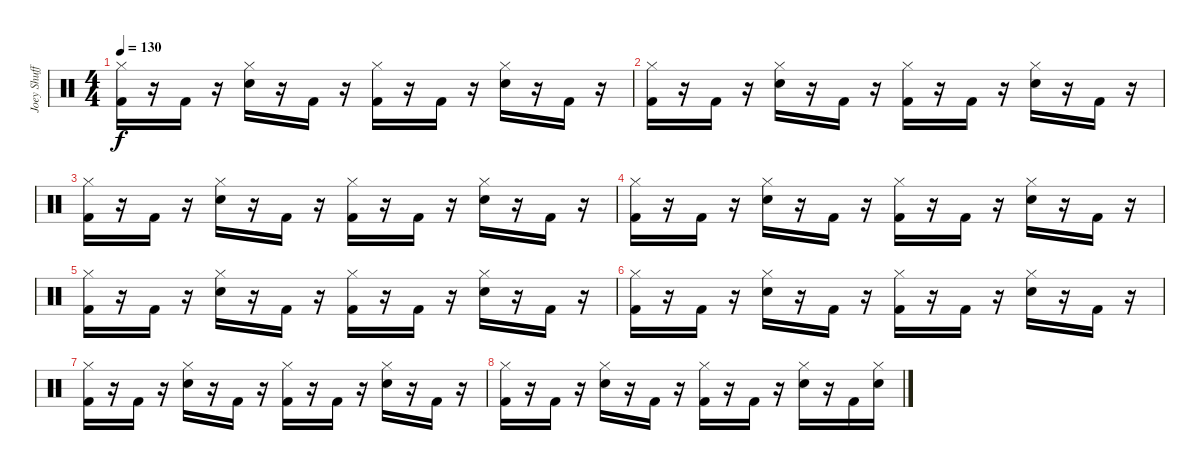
\track ("Joey Shuffield" "Joey Shuff") {instrument percussion}
\staff {score}
\articulation defaults
\ts (4 4)
\tempo 130
\clef neutral
\ks c
("Kick (hit) 2" "Hi-Hat (closed)").16{dy f} r.16 "Kick (hit) 2".16 r.16 ("Snare (hit) 2" "Hi-Hat (closed)").16 r.16 "Kick (hit) 2".16 r.16 ("Kick (hit) 2" "Hi-Hat (closed)").16 r.16 "Kick (hit) 2".16 r.16 ("Snare (hit) 2" "Hi-Hat (closed)").16 r.16 "Kick (hit) 2".16 r.16 |
("Kick (hit) 2" "Hi-Hat (closed)").16 r.16 "Kick (hit) 2".16 r.16 ("Snare (hit) 2" "Hi-Hat (closed)").16 r.16 "Kick (hit) 2".16 r.16 ("Kick (hit) 2" "Hi-Hat (closed)").16 r.16 "Kick (hit) 2".16 r.16 ("Snare (hit) 2" "Hi-Hat (closed)").16 r.16 "Kick (hit) 2".16 r.16 |
("Kick (hit) 2" "Hi-Hat (closed)").16 r.16 "Kick (hit) 2".16 r.16 ("Snare (hit) 2" "Hi-Hat (closed)").16 r.16 "Kick (hit) 2".16 r.16 ("Kick (hit) 2" "Hi-Hat (closed)").16 r.16 "Kick (hit) 2".16 r.16 ("Snare (hit) 2" "Hi-Hat (closed)").16 r.16 "Kick (hit) 2".16 r.16 |
("Kick (hit) 2" "Hi-Hat (closed)").16 r.16 "Kick (hit) 2".16 r.16 ("Snare (hit) 2" "Hi-Hat (closed)").16 r.16 "Kick (hit) 2".16 r.16 ("Kick (hit) 2" "Hi-Hat (closed)").16 r.16 "Kick (hit) 2".16 r.16 ("Snare (hit) 2" "Hi-Hat (closed)").16 r.16 "Kick (hit) 2".16 r.16 |
("Kick (hit) 2" "Hi-Hat (closed)").16 r.16 "Kick (hit) 2".16 r.16 ("Snare (hit) 2" "Hi-Hat (closed)").16 r.16 "Kick (hit) 2".16 r.16 ("Kick (hit) 2" "Hi-Hat (closed)").16 r.16 "Kick (hit) 2".16 r.16 ("Snare (hit) 2" "Hi-Hat (closed)").16 r.16 "Kick (hit) 2".16 r.16 |
("Kick (hit) 2" "Hi-Hat (closed)").16 r.16 "Kick (hit) 2".16 r.16 ("Snare (hit) 2" "Hi-Hat (closed)").16 r.16 "Kick (hit) 2".16 r.16 ("Kick (hit) 2" "Hi-Hat (closed)").16 r.16 "Kick (hit) 2".16 r.16 ("Snare (hit) 2" "Hi-Hat (closed)").16 r.16 "Kick (hit) 2".16 r.16 |
("Kick (hit) 2" "Hi-Hat (closed)").16 r.16 "Kick (hit) 2".16 r.16 ("Snare (hit) 2" "Hi-Hat (closed)").16 r.16 "Kick (hit) 2".16 r.16 ("Kick (hit) 2" "Hi-Hat (closed)").16 r.16 "Kick (hit) 2".16 r.16 ("Snare (hit) 2" "Hi-Hat (closed)").16 r.16 "Kick (hit) 2".16 r.16 |
("Kick (hit) 2" "Hi-Hat (closed)").16 r.16 "Kick (hit) 2".16 r.16 ("Snare (hit) 2" "Hi-Hat (closed)").16 r.16 "Kick (hit) 2".16 r.16 ("Kick (hit) 2" "Hi-Hat (closed)").16 r.16 "Kick (hit) 2".16 r.16 ("Snare (hit) 2" "Hi-Hat (closed)").16 r.16 "Kick (hit) 2".16 ("Snare (hit) 2" "Hi-Hat (closed)").16
